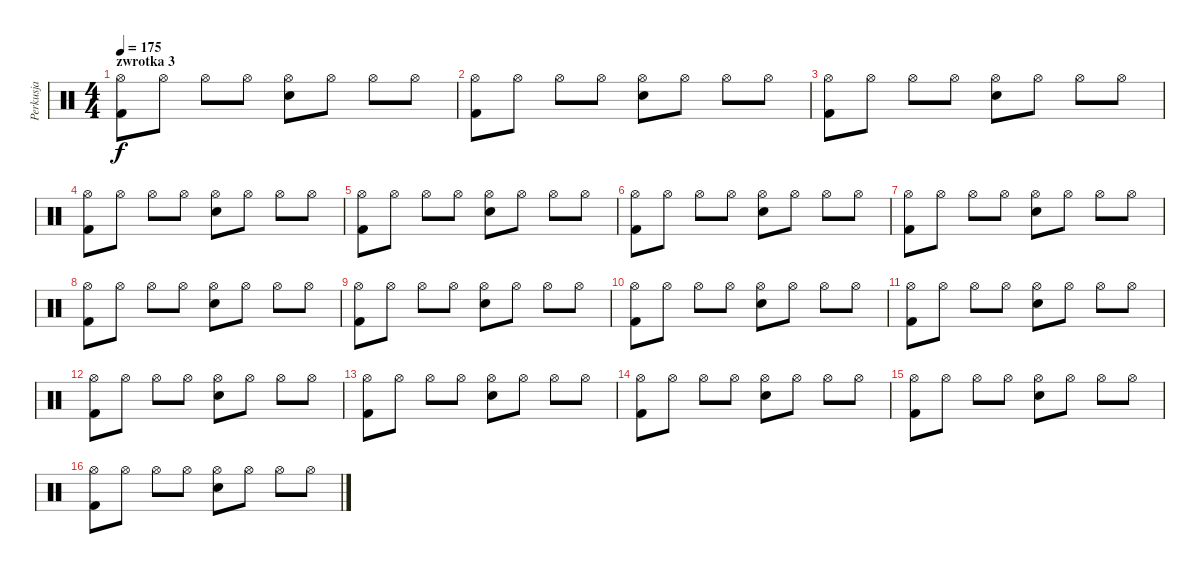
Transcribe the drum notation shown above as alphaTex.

\track ("Perkusja" "Perkusja") {instrument percussion}
\staff {score}
\articulation defaults
\ts (4 4)
\section ("" "zwrotka 3")
\tempo 175
\clef neutral
\ks c
("Kick (hit) 2" "Hi-Hat (open)").8{dy f} "Hi-Hat (open)".8 "Hi-Hat (open)".8 "Hi-Hat (open)".8 ("Snare (hit) 2" "Hi-Hat (open)").8 "Hi-Hat (open)".8 "Hi-Hat (open)".8 "Hi-Hat (open)".8 |
("Kick (hit) 2" "Hi-Hat (open)").8 "Hi-Hat (open)".8 "Hi-Hat (open)".8 "Hi-Hat (open)".8 ("Snare (hit) 2" "Hi-Hat (open)").8 "Hi-Hat (open)".8 "Hi-Hat (open)".8 "Hi-Hat (open)".8 |
("Kick (hit) 2" "Hi-Hat (open)").8 "Hi-Hat (open)".8 "Hi-Hat (open)".8 "Hi-Hat (open)".8 ("Snare (hit) 2" "Hi-Hat (open)").8 "Hi-Hat (open)".8 "Hi-Hat (open)".8 "Hi-Hat (open)".8 |
("Kick (hit) 2" "Hi-Hat (open)").8 "Hi-Hat (open)".8 "Hi-Hat (open)".8 "Hi-Hat (open)".8 ("Snare (hit) 2" "Hi-Hat (open)").8 "Hi-Hat (open)".8 "Hi-Hat (open)".8 "Hi-Hat (open)".8 |
("Kick (hit) 2" "Hi-Hat (open)").8 "Hi-Hat (open)".8 "Hi-Hat (open)".8 "Hi-Hat (open)".8 ("Snare (hit) 2" "Hi-Hat (open)").8 "Hi-Hat (open)".8 "Hi-Hat (open)".8 "Hi-Hat (open)".8 |
("Kick (hit) 2" "Hi-Hat (open)").8 "Hi-Hat (open)".8 "Hi-Hat (open)".8 "Hi-Hat (open)".8 ("Snare (hit) 2" "Hi-Hat (open)").8 "Hi-Hat (open)".8 "Hi-Hat (open)".8 "Hi-Hat (open)".8 |
("Kick (hit) 2" "Hi-Hat (open)").8 "Hi-Hat (open)".8 "Hi-Hat (open)".8 "Hi-Hat (open)".8 ("Snare (hit) 2" "Hi-Hat (open)").8 "Hi-Hat (open)".8 "Hi-Hat (open)".8 "Hi-Hat (open)".8 |
("Kick (hit) 2" "Hi-Hat (open)").8 "Hi-Hat (open)".8 "Hi-Hat (open)".8 "Hi-Hat (open)".8 ("Snare (hit) 2" "Hi-Hat (open)").8 "Hi-Hat (open)".8 "Hi-Hat (open)".8 "Hi-Hat (open)".8 |
("Kick (hit) 2" "Hi-Hat (open)").8 "Hi-Hat (open)".8 "Hi-Hat (open)".8 "Hi-Hat (open)".8 ("Snare (hit) 2" "Hi-Hat (open)").8 "Hi-Hat (open)".8 "Hi-Hat (open)".8 "Hi-Hat (open)".8 |
("Kick (hit) 2" "Hi-Hat (open)").8 "Hi-Hat (open)".8 "Hi-Hat (open)".8 "Hi-Hat (open)".8 ("Snare (hit) 2" "Hi-Hat (open)").8 "Hi-Hat (open)".8 "Hi-Hat (open)".8 "Hi-Hat (open)".8 |
("Kick (hit) 2" "Hi-Hat (open)").8 "Hi-Hat (open)".8 "Hi-Hat (open)".8 "Hi-Hat (open)".8 ("Snare (hit) 2" "Hi-Hat (open)").8 "Hi-Hat (open)".8 "Hi-Hat (open)".8 "Hi-Hat (open)".8 |
("Kick (hit) 2" "Hi-Hat (open)").8 "Hi-Hat (open)".8 "Hi-Hat (open)".8 "Hi-Hat (open)".8 ("Snare (hit) 2" "Hi-Hat (open)").8 "Hi-Hat (open)".8 "Hi-Hat (open)".8 "Hi-Hat (open)".8 |
("Kick (hit) 2" "Hi-Hat (open)").8 "Hi-Hat (open)".8 "Hi-Hat (open)".8 "Hi-Hat (open)".8 ("Snare (hit) 2" "Hi-Hat (open)").8 "Hi-Hat (open)".8 "Hi-Hat (open)".8 "Hi-Hat (open)".8 |
("Kick (hit) 2" "Hi-Hat (open)").8 "Hi-Hat (open)".8 "Hi-Hat (open)".8 "Hi-Hat (open)".8 ("Snare (hit) 2" "Hi-Hat (open)").8 "Hi-Hat (open)".8 "Hi-Hat (open)".8 "Hi-Hat (open)".8 |
("Kick (hit) 2" "Hi-Hat (open)").8 "Hi-Hat (open)".8 "Hi-Hat (open)".8 "Hi-Hat (open)".8 ("Snare (hit) 2" "Hi-Hat (open)").8 "Hi-Hat (open)".8 "Hi-Hat (open)".8 "Hi-Hat (open)".8 |
("Kick (hit) 2" "Hi-Hat (open)").8 "Hi-Hat (open)".8 "Hi-Hat (open)".8 "Hi-Hat (open)".8 ("Snare (hit) 2" "Hi-Hat (open)").8 "Hi-Hat (open)".8 "Hi-Hat (open)".8 "Hi-Hat (open)".8
